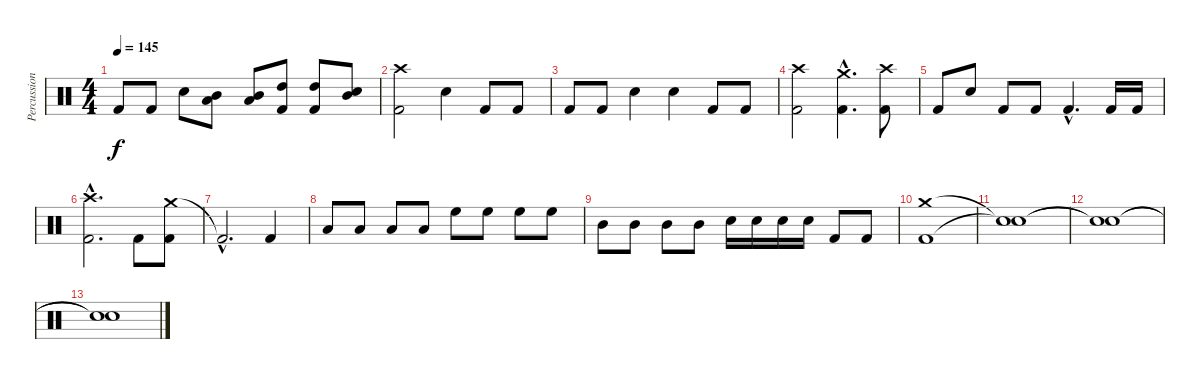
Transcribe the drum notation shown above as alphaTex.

\track ("Percussion" "Percussion") {instrument percussion}
\staff {score}
\articulation defaults
\ts (4 4)
\tempo 145
\clef neutral
\ks c "Kick (hit) 2".8{dy f} "Kick (hit) 2".8 "Snare (hit) 2".8
("Low Tom (hit)" "Mid Tom (hit)").8 ("Low Tom (hit)" "Mid Tom (hit)").8 ("High Tom (hit)" "Kick (hit) 2").8 ("High Tom (hit)" "Kick (hit) 2").8 ("Mid Tom (hit)" "Snare (hit) 2").8 |
("Crash high (hit)" "Kick (hit) 2").2 "Snare (hit) 2".4 "Kick (hit) 2".8 "Kick (hit) 2".8 |
"Kick (hit) 2".8 "Kick (hit) 2".8 "Snare (hit) 2".4 "Snare (hit) 2".4 "Kick (hit) 2".8 "Kick (hit) 2".8 |
("Crash high (hit)" "Kick (hit) 2").2 ("Crash medium (hit)"{hac} "Kick (hit) 2"{hac}).4{d} ("Crash high (hit)" "Kick (hit) 2").8 |
"Kick (hit) 2".8 "Snare (hit) 2".8 "Kick (hit) 2".8 "Kick (hit) 2".8 "Kick (hit) 2"{hac}.4{d} "Kick (hit) 2".16 "Kick (hit) 2".16 |
("Crash high (hit)"{hac} "Kick (hit) 2"{hac}).2{d} "Kick (hit) 2".8 ("Crash medium (hit)" "Kick (hit) 2").8 |
"Kick (hit) 2"{hac t}.2{d} "Kick (hit) 2".4 |
"Low Tom (hit)".8 "Low Tom (hit)".8 "Low Tom (hit)".8 "Low Tom (hit)".8 "High Floor Tom (hit)".8 "High Floor Tom (hit)".8 "High Floor Tom (hit)".8 "High Floor Tom (hit)".8 |
"Mid Tom (hit)".8 "Mid Tom (hit)".8 "Mid Tom (hit)".8 "Mid Tom (hit)".8 "Snare (hit) 2".16 "Snare (hit) 2".16 "Snare (hit) 2".16 "Snare (hit) 2".16 "Kick (hit) 2".8 "Kick (hit) 2".8 |
("Crash medium (hit)" "Kick (hit) 2").1 |
("Snare (hit)"{t} "Snare (hit)"{t}).1 |
("Snare (hit)"{t} "Snare (hit)"{t}).1 |
("Snare (hit)"{t} "Snare (hit)"{t}).1
